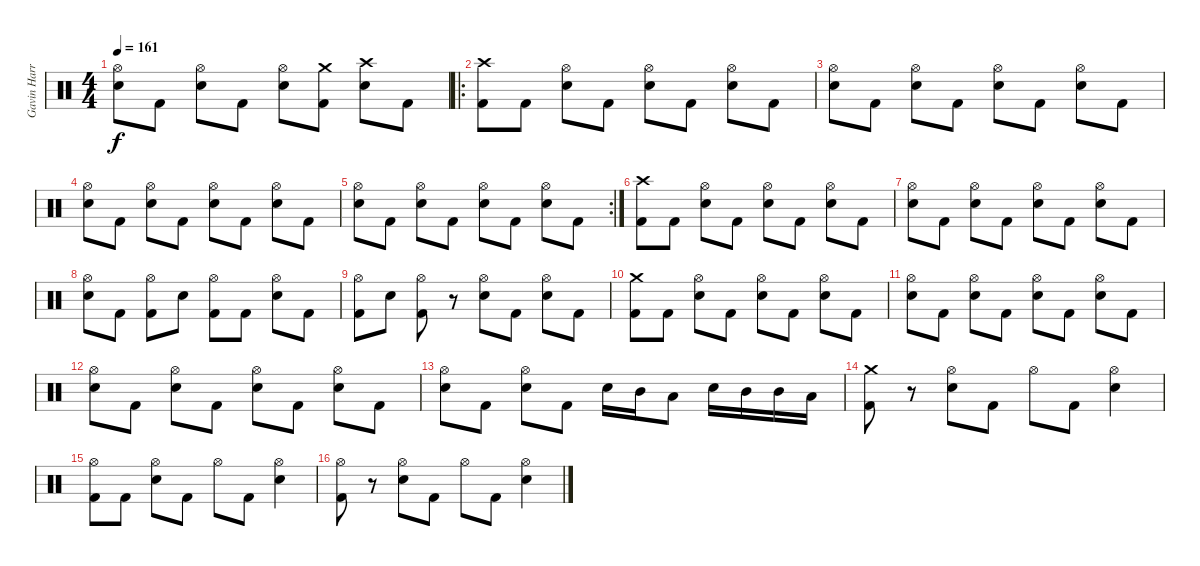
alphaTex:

\track ("Gavin Harrison (Drums)" "Gavin Harr") {instrument percussion}
\staff {score}
\articulation defaults
\ts (4 4)
\tempo 161
\clef neutral
\ks c
("Hi-Hat (open)" "Electric Snare (hit)").8{dy f} "Kick (hit) 2".8 ("Hi-Hat (open)" "Electric Snare (hit)").8 "Kick (hit) 2".8 ("Hi-Hat (open)" "Electric Snare (hit)").8 ("Crash medium (hit)" "Kick (hit) 2").8 ("Crash high (hit)" "Electric Snare (hit)").8 "Kick (hit) 2".8 |
\ro
("Crash high (hit)" "Kick (hit) 2").8 "Kick (hit) 2".8 ("Hi-Hat (open)" "Electric Snare (hit)").8 "Kick (hit) 2".8 ("Hi-Hat (open)" "Electric Snare (hit)").8 "Kick (hit) 2".8 ("Hi-Hat (open)" "Electric Snare (hit)").8 "Kick (hit) 2".8 |
("Hi-Hat (open)" "Electric Snare (hit)").8 "Kick (hit) 2".8 ("Hi-Hat (open)" "Electric Snare (hit)").8 "Kick (hit) 2".8 ("Hi-Hat (open)" "Electric Snare (hit)").8 "Kick (hit) 2".8 ("Hi-Hat (open)" "Electric Snare (hit)").8 "Kick (hit) 2".8 |
("Hi-Hat (open)" "Electric Snare (hit)").8 "Kick (hit) 2".8 ("Hi-Hat (open)" "Electric Snare (hit)").8 "Kick (hit) 2".8 ("Hi-Hat (open)" "Electric Snare (hit)").8 "Kick (hit) 2".8 ("Hi-Hat (open)" "Electric Snare (hit)").8 "Kick (hit) 2".8 |
\rc 2
("Hi-Hat (open)" "Electric Snare (hit)").8 "Kick (hit) 2".8 ("Hi-Hat (open)" "Electric Snare (hit)").8 "Kick (hit) 2".8 ("Hi-Hat (open)" "Electric Snare (hit)").8 "Kick (hit) 2".8 ("Hi-Hat (open)" "Electric Snare (hit)").8 "Kick (hit) 2".8 |
("Crash high (hit)" "Kick (hit) 2").8 "Kick (hit) 2".8 ("Hi-Hat (open)" "Electric Snare (hit)").8 "Kick (hit) 2".8 ("Hi-Hat (open)" "Electric Snare (hit)").8 "Kick (hit) 2".8 ("Hi-Hat (open)" "Electric Snare (hit)").8 "Kick (hit) 2".8 |
("Hi-Hat (open)" "Electric Snare (hit)").8 "Kick (hit) 2".8 ("Hi-Hat (open)" "Electric Snare (hit)").8 "Kick (hit) 2".8 ("Hi-Hat (open)" "Electric Snare (hit)").8 "Kick (hit) 2".8 ("Hi-Hat (open)" "Electric Snare (hit)").8 "Kick (hit) 2".8 |
("Hi-Hat (open)" "Electric Snare (hit)").8 "Kick (hit) 2".8 ("Hi-Hat (open)" "Kick (hit) 2").8 "Electric Snare (hit)".8 ("Hi-Hat (open)" "Kick (hit) 2").8 "Kick (hit) 2".8 ("Hi-Hat (open)" "Electric Snare (hit)").8 "Kick (hit) 2".8 |
("Hi-Hat (open)" "Kick (hit) 2").8 "Electric Snare (hit)".8 ("Hi-Hat (open)" "Kick (hit) 2").8 r.8 ("Hi-Hat (open)" "Electric Snare (hit)").8 "Kick (hit) 2".8 ("Hi-Hat (open)" "Electric Snare (hit)").8 "Kick (hit) 2".8 |
("Crash medium (hit)" "Kick (hit) 2").8 "Kick (hit) 2".8 ("Hi-Hat (open)" "Electric Snare (hit)").8 "Kick (hit) 2".8 ("Hi-Hat (open)" "Electric Snare (hit)").8 "Kick (hit) 2".8 ("Hi-Hat (open)" "Electric Snare (hit)").8 "Kick (hit) 2".8 |
("Hi-Hat (open)" "Electric Snare (hit)").8 "Kick (hit) 2".8 ("Hi-Hat (open)" "Electric Snare (hit)").8 "Kick (hit) 2".8 ("Hi-Hat (open)" "Electric Snare (hit)").8 "Kick (hit) 2".8 ("Hi-Hat (open)" "Electric Snare (hit)").8 "Kick (hit) 2".8 |
("Hi-Hat (open)" "Electric Snare (hit)").8 "Kick (hit) 2".8 ("Hi-Hat (open)" "Electric Snare (hit)").8 "Kick (hit) 2".8 ("Hi-Hat (open)" "Electric Snare (hit)").8 "Kick (hit) 2".8 ("Hi-Hat (open)" "Electric Snare (hit)").8 "Kick (hit) 2".8 |
("Hi-Hat (open)" "Electric Snare (hit)").8 "Kick (hit) 2".8 ("Hi-Hat (open)" "Electric Snare (hit)").8 "Kick (hit) 2".8 "Electric Snare (hit)".16 "Mid Tom (hit)".16 "Low Tom (hit)".8 "Electric Snare (hit)".16 "Mid Tom (hit)".16 "Mid Tom (hit)".16 "Low Tom (hit)".16 |
("Crash medium (hit)" "Kick (hit) 2").8 r.8 ("Hi-Hat (open)" "Electric Snare (hit)").8 "Kick (hit) 2".8 "Hi-Hat (open)".8 "Kick (hit) 2".8 ("Hi-Hat (open)" "Electric Snare (hit)").4 |
("Hi-Hat (open)" "Kick (hit) 2").8 "Kick (hit) 2".8 ("Hi-Hat (open)" "Electric Snare (hit)").8 "Kick (hit) 2".8 "Hi-Hat (open)".8 "Kick (hit) 2".8 ("Hi-Hat (open)" "Electric Snare (hit)").4 |
("Hi-Hat (open)" "Kick (hit) 2").8 r.8 ("Hi-Hat (open)" "Electric Snare (hit)").8 "Kick (hit) 2".8 "Hi-Hat (open)".8 "Kick (hit) 2".8 ("Hi-Hat (open)" "Electric Snare (hit)").4
